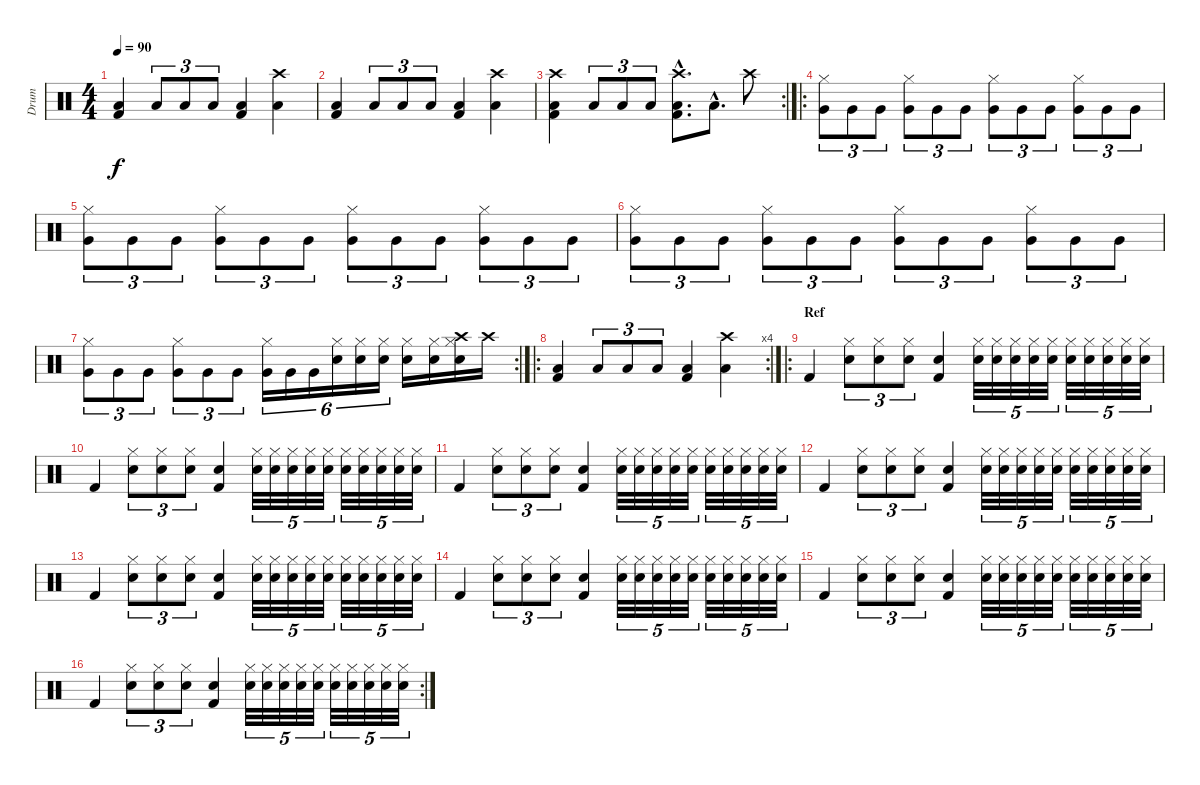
\track ("Drum" "Drum") {instrument percussion}
\staff {score}
\articulation defaults
\ts (4 4)
\tempo 90
\clef neutral
\ks c
("Kick (hit) 2" "Low Floor Tom (hit)").4{dy f} "Low Floor Tom (hit)".8{tu (3 2)} "Low Floor Tom (hit)".8{tu (3 2)} "Low Floor Tom (hit)".8{tu (3 2)} ("Kick (hit) 2" "Low Floor Tom (hit)").4 ("Low Floor Tom (hit)" "Crash high (hit)").4 |
("Kick (hit) 2" "Low Floor Tom (hit)").4 "Low Floor Tom (hit)".8{tu (3 2)} "Low Floor Tom (hit)".8{tu (3 2)} "Low Floor Tom (hit)".8{tu (3 2)} ("Kick (hit) 2" "Low Floor Tom (hit)").4 ("Low Floor Tom (hit)" "Crash high (hit)").4 |
\rc 2
("Kick (hit) 2" "Low Floor Tom (hit)" "Crash high (hit)").4 "Low Floor Tom (hit)".8{tu (3 2)} "Low Floor Tom (hit)".8{tu (3 2)} "Low Floor Tom (hit)".8{tu (3 2)} ("Kick (hit) 2"{hac} "Low Floor Tom (hit)"{hac} "Crash high (hit)"{hac}).8{d} "Low Floor Tom (hit)"{hac}.8{d} "Crash high (hit)".8 |
\ro
("Very Low Tom (hit)" "Hi-Hat (closed)").8{tu (3 2)} "Very Low Tom (hit)".8{tu (3 2)} "Very Low Tom (hit)".8{tu (3 2)} ("Very Low Tom (hit)" "Hi-Hat (closed)").8{tu (3 2)} "Very Low Tom (hit)".8{tu (3 2)} "Very Low Tom (hit)".8{tu (3 2)} ("Very Low Tom (hit)" "Hi-Hat (closed)").8{tu (3 2)} "Very Low Tom (hit)".8{tu (3 2)} "Very Low Tom (hit)".8{tu (3 2)} ("Very Low Tom (hit)" "Hi-Hat (closed)").8{tu (3 2)} "Very Low Tom (hit)".8{tu (3 2)} "Very Low Tom (hit)".8{tu (3 2)} |
("Very Low Tom (hit)" "Hi-Hat (closed)").8{tu (3 2)} "Very Low Tom (hit)".8{tu (3 2)} "Very Low Tom (hit)".8{tu (3 2)} ("Very Low Tom (hit)" "Hi-Hat (closed)").8{tu (3 2)} "Very Low Tom (hit)".8{tu (3 2)} "Very Low Tom (hit)".8{tu (3 2)} ("Very Low Tom (hit)" "Hi-Hat (closed)").8{tu (3 2)} "Very Low Tom (hit)".8{tu (3 2)} "Very Low Tom (hit)".8{tu (3 2)} ("Very Low Tom (hit)" "Hi-Hat (closed)").8{tu (3 2)} "Very Low Tom (hit)".8{tu (3 2)} "Very Low Tom (hit)".8{tu (3 2)} |
("Very Low Tom (hit)" "Hi-Hat (closed)").8{tu (3 2)} "Very Low Tom (hit)".8{tu (3 2)} "Very Low Tom (hit)".8{tu (3 2)} ("Very Low Tom (hit)" "Hi-Hat (closed)").8{tu (3 2)} "Very Low Tom (hit)".8{tu (3 2)} "Very Low Tom (hit)".8{tu (3 2)} ("Very Low Tom (hit)" "Hi-Hat (closed)").8{tu (3 2)} "Very Low Tom (hit)".8{tu (3 2)} "Very Low Tom (hit)".8{tu (3 2)} ("Very Low Tom (hit)" "Hi-Hat (closed)").8{tu (3 2)} "Very Low Tom (hit)".8{tu (3 2)} "Very Low Tom (hit)".8{tu (3 2)} |
\rc 2
("Very Low Tom (hit)" "Hi-Hat (closed)").8{tu (3 2)} "Very Low Tom (hit)".8{tu (3 2)} "Very Low Tom (hit)".8{tu (3 2)} ("Very Low Tom (hit)" "Hi-Hat (closed)").8{tu (3 2)} "Very Low Tom (hit)".8{tu (3 2)} "Very Low Tom (hit)".8{tu (3 2)} ("Very Low Tom (hit)" "Hi-Hat (closed)").16{tu (6 4)} "Very Low Tom (hit)".16{tu (6 4)} "Very Low Tom (hit)".16{tu (6 4)} ("Snare (hit) 2" "Hi-Hat (closed)").16{tu (6 4)} ("Snare (hit) 2" "Hi-Hat (closed)").16{tu (6 4)} ("Snare (hit) 2" "Hi-Hat (closed)").16{tu (6 4)} ("Snare (hit) 2" "Hi-Hat (closed)").16 ("Snare (hit) 2" "Hi-Hat (closed)").16 ("Snare (hit) 2" "Hi-Hat (closed)" "Crash high (hit)").16 "Crash high (hit)".16 |
\ro
\rc 4
("Kick (hit) 2" "Low Floor Tom (hit)").4 "Low Floor Tom (hit)".8{tu (3 2)} "Low Floor Tom (hit)".8{tu (3 2)} "Low Floor Tom (hit)".8{tu (3 2)} ("Kick (hit) 2" "Low Floor Tom (hit)").4 ("Low Floor Tom (hit)" "Crash high (hit)").4 |
\ro
\section ("" "Ref")
"Kick (hit) 2".4 ("Snare (hit) 2" "Hi-Hat (closed)").8{tu (3 2)} ("Snare (hit) 2" "Hi-Hat (closed)").8{tu (3 2)} ("Snare (hit) 2" "Hi-Hat (closed)").8{tu (3 2)} ("Kick (hit) 2" "Snare (hit) 2").4 ("Snare (hit) 2" "Hi-Hat (closed)").32{tu (5 4)} ("Snare (hit) 2" "Hi-Hat (closed)").32{tu (5 4)} ("Snare (hit) 2" "Hi-Hat (closed)").32{tu (5 4)} ("Snare (hit) 2" "Hi-Hat (closed)").32{tu (5 4)} ("Snare (hit) 2" "Hi-Hat (closed)").32{tu (5 4)} ("Snare (hit) 2" "Hi-Hat (closed)").32{tu (5 4)} ("Snare (hit) 2" "Hi-Hat (closed)").32{tu (5 4)} ("Snare (hit) 2" "Hi-Hat (closed)").32{tu (5 4)} ("Snare (hit) 2" "Hi-Hat (closed)").32{tu (5 4)} ("Snare (hit) 2" "Hi-Hat (closed)").32{tu (5 4)} |
"Kick (hit) 2".4 ("Snare (hit) 2" "Hi-Hat (closed)").8{tu (3 2)} ("Snare (hit) 2" "Hi-Hat (closed)").8{tu (3 2)} ("Snare (hit) 2" "Hi-Hat (closed)").8{tu (3 2)} ("Kick (hit) 2" "Snare (hit) 2").4 ("Snare (hit) 2" "Hi-Hat (closed)").32{tu (5 4)} ("Snare (hit) 2" "Hi-Hat (closed)").32{tu (5 4)} ("Snare (hit) 2" "Hi-Hat (closed)").32{tu (5 4)} ("Snare (hit) 2" "Hi-Hat (closed)").32{tu (5 4)} ("Snare (hit) 2" "Hi-Hat (closed)").32{tu (5 4)} ("Snare (hit) 2" "Hi-Hat (closed)").32{tu (5 4)} ("Snare (hit) 2" "Hi-Hat (closed)").32{tu (5 4)} ("Snare (hit) 2" "Hi-Hat (closed)").32{tu (5 4)} ("Snare (hit) 2" "Hi-Hat (closed)").32{tu (5 4)} ("Snare (hit) 2" "Hi-Hat (closed)").32{tu (5 4)} |
"Kick (hit) 2".4 ("Snare (hit) 2" "Hi-Hat (closed)").8{tu (3 2)} ("Snare (hit) 2" "Hi-Hat (closed)").8{tu (3 2)} ("Snare (hit) 2" "Hi-Hat (closed)").8{tu (3 2)} ("Kick (hit) 2" "Snare (hit) 2").4 ("Snare (hit) 2" "Hi-Hat (closed)").32{tu (5 4)} ("Snare (hit) 2" "Hi-Hat (closed)").32{tu (5 4)} ("Snare (hit) 2" "Hi-Hat (closed)").32{tu (5 4)} ("Snare (hit) 2" "Hi-Hat (closed)").32{tu (5 4)} ("Snare (hit) 2" "Hi-Hat (closed)").32{tu (5 4)} ("Snare (hit) 2" "Hi-Hat (closed)").32{tu (5 4)} ("Snare (hit) 2" "Hi-Hat (closed)").32{tu (5 4)} ("Snare (hit) 2" "Hi-Hat (closed)").32{tu (5 4)} ("Snare (hit) 2" "Hi-Hat (closed)").32{tu (5 4)} ("Snare (hit) 2" "Hi-Hat (closed)").32{tu (5 4)} |
"Kick (hit) 2".4 ("Snare (hit) 2" "Hi-Hat (closed)").8{tu (3 2)} ("Snare (hit) 2" "Hi-Hat (closed)").8{tu (3 2)} ("Snare (hit) 2" "Hi-Hat (closed)").8{tu (3 2)} ("Kick (hit) 2" "Snare (hit) 2").4 ("Snare (hit) 2" "Hi-Hat (closed)").32{tu (5 4)} ("Snare (hit) 2" "Hi-Hat (closed)").32{tu (5 4)} ("Snare (hit) 2" "Hi-Hat (closed)").32{tu (5 4)} ("Snare (hit) 2" "Hi-Hat (closed)").32{tu (5 4)} ("Snare (hit) 2" "Hi-Hat (closed)").32{tu (5 4)} ("Snare (hit) 2" "Hi-Hat (closed)").32{tu (5 4)} ("Snare (hit) 2" "Hi-Hat (closed)").32{tu (5 4)} ("Snare (hit) 2" "Hi-Hat (closed)").32{tu (5 4)} ("Snare (hit) 2" "Hi-Hat (closed)").32{tu (5 4)} ("Snare (hit) 2" "Hi-Hat (closed)").32{tu (5 4)} |
"Kick (hit) 2".4 ("Snare (hit) 2" "Hi-Hat (closed)").8{tu (3 2)} ("Snare (hit) 2" "Hi-Hat (closed)").8{tu (3 2)} ("Snare (hit) 2" "Hi-Hat (closed)").8{tu (3 2)} ("Kick (hit) 2" "Snare (hit) 2").4 ("Snare (hit) 2" "Hi-Hat (closed)").32{tu (5 4)} ("Snare (hit) 2" "Hi-Hat (closed)").32{tu (5 4)} ("Snare (hit) 2" "Hi-Hat (closed)").32{tu (5 4)} ("Snare (hit) 2" "Hi-Hat (closed)").32{tu (5 4)} ("Snare (hit) 2" "Hi-Hat (closed)").32{tu (5 4)} ("Snare (hit) 2" "Hi-Hat (closed)").32{tu (5 4)} ("Snare (hit) 2" "Hi-Hat (closed)").32{tu (5 4)} ("Snare (hit) 2" "Hi-Hat (closed)").32{tu (5 4)} ("Snare (hit) 2" "Hi-Hat (closed)").32{tu (5 4)} ("Snare (hit) 2" "Hi-Hat (closed)").32{tu (5 4)} |
"Kick (hit) 2".4 ("Snare (hit) 2" "Hi-Hat (closed)").8{tu (3 2)} ("Snare (hit) 2" "Hi-Hat (closed)").8{tu (3 2)} ("Snare (hit) 2" "Hi-Hat (closed)").8{tu (3 2)} ("Kick (hit) 2" "Snare (hit) 2").4 ("Snare (hit) 2" "Hi-Hat (closed)").32{tu (5 4)} ("Snare (hit) 2" "Hi-Hat (closed)").32{tu (5 4)} ("Snare (hit) 2" "Hi-Hat (closed)").32{tu (5 4)} ("Snare (hit) 2" "Hi-Hat (closed)").32{tu (5 4)} ("Snare (hit) 2" "Hi-Hat (closed)").32{tu (5 4)} ("Snare (hit) 2" "Hi-Hat (closed)").32{tu (5 4)} ("Snare (hit) 2" "Hi-Hat (closed)").32{tu (5 4)} ("Snare (hit) 2" "Hi-Hat (closed)").32{tu (5 4)} ("Snare (hit) 2" "Hi-Hat (closed)").32{tu (5 4)} ("Snare (hit) 2" "Hi-Hat (closed)").32{tu (5 4)} |
"Kick (hit) 2".4 ("Snare (hit) 2" "Hi-Hat (closed)").8{tu (3 2)} ("Snare (hit) 2" "Hi-Hat (closed)").8{tu (3 2)} ("Snare (hit) 2" "Hi-Hat (closed)").8{tu (3 2)} ("Kick (hit) 2" "Snare (hit) 2").4 ("Snare (hit) 2" "Hi-Hat (closed)").32{tu (5 4)} ("Snare (hit) 2" "Hi-Hat (closed)").32{tu (5 4)} ("Snare (hit) 2" "Hi-Hat (closed)").32{tu (5 4)} ("Snare (hit) 2" "Hi-Hat (closed)").32{tu (5 4)} ("Snare (hit) 2" "Hi-Hat (closed)").32{tu (5 4)} ("Snare (hit) 2" "Hi-Hat (closed)").32{tu (5 4)} ("Snare (hit) 2" "Hi-Hat (closed)").32{tu (5 4)} ("Snare (hit) 2" "Hi-Hat (closed)").32{tu (5 4)} ("Snare (hit) 2" "Hi-Hat (closed)").32{tu (5 4)} ("Snare (hit) 2" "Hi-Hat (closed)").32{tu (5 4)} |
\rc 2 "Kick (hit) 2".4
("Snare (hit) 2" "Hi-Hat (closed)").8{tu (3 2)} ("Snare (hit) 2" "Hi-Hat (closed)").8{tu (3 2)} ("Snare (hit) 2" "Hi-Hat (closed)").8{tu (3 2)} ("Kick (hit) 2" "Snare (hit) 2").4 ("Snare (hit) 2" "Hi-Hat (closed)").32{tu (5 4)} ("Snare (hit) 2" "Hi-Hat (closed)").32{tu (5 4)} ("Snare (hit) 2" "Hi-Hat (closed)").32{tu (5 4)} ("Snare (hit) 2" "Hi-Hat (closed)").32{tu (5 4)} ("Snare (hit) 2" "Hi-Hat (closed)").32{tu (5 4)} ("Snare (hit) 2" "Hi-Hat (closed)").32{tu (5 4)} ("Snare (hit) 2" "Hi-Hat (closed)").32{tu (5 4)} ("Snare (hit) 2" "Hi-Hat (closed)").32{tu (5 4)} ("Snare (hit) 2" "Hi-Hat (closed)").32{tu (5 4)} ("Snare (hit) 2" "Hi-Hat (closed)").32{tu (5 4)}
